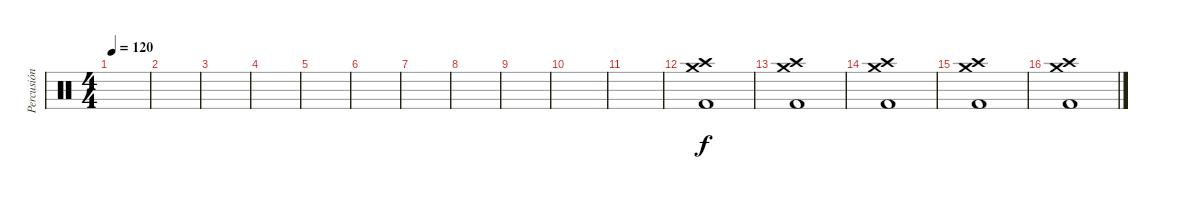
\track ("Percusión" "Percusión") {instrument percussion}
\staff {score}
\articulation defaults
\ts (4 4)
\tempo 120
\clef neutral
\ks c
|
|
|
|
|
|
|
|
|
|
|
("Crash medium (hit)" "Crash high (hit)" "Kick (hit) 2").1 |
("Crash medium (hit)" "Crash high (hit)" "Kick (hit) 2").1 |
("Crash medium (hit)" "Crash high (hit)" "Kick (hit) 2").1 |
("Crash medium (hit)" "Crash high (hit)" "Kick (hit) 2").1 |
("Crash medium (hit)" "Crash high (hit)" "Kick (hit) 2").1
